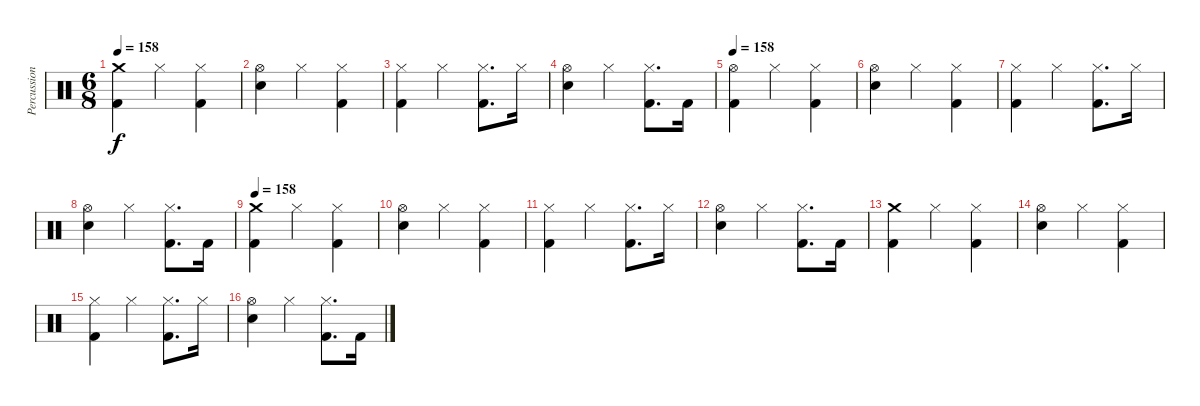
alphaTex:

\track ("Percussion" "Percussion") {instrument percussion}
\staff {score}
\articulation defaults
\ts (6 8)
\section ("" "")
\tempo 158
\clef neutral
\ks c
("Crash medium (hit)" "Kick (hit) 2").4{dy f} "Hi-Hat (closed)".4 ("Hi-Hat (closed)" "Kick (hit) 2").4 |
("Hi-Hat (open)" "Snare (hit) 2").4 "Hi-Hat (closed)".4 ("Hi-Hat (closed)" "Kick (hit) 2").4 |
("Hi-Hat (closed)" "Kick (hit) 2").4 "Hi-Hat (closed)".4 ("Hi-Hat (closed)" "Kick (hit) 2").8{d} "Hi-Hat (closed)".16 |
("Hi-Hat (open)" "Snare (hit) 2").4 "Hi-Hat (closed)".4 ("Hi-Hat (closed)" "Kick (hit) 2").8{d} "Kick (hit) 2".16 |
\tempo 158
("Hi-Hat (open)" "Kick (hit) 2").4 "Hi-Hat (closed)".4 ("Hi-Hat (closed)" "Kick (hit) 2").4 |
("Hi-Hat (open)" "Snare (hit) 2").4 "Hi-Hat (closed)".4 ("Hi-Hat (closed)" "Kick (hit) 2").4 |
("Hi-Hat (closed)" "Kick (hit) 2").4 "Hi-Hat (closed)".4 ("Hi-Hat (closed)" "Kick (hit) 2").8{d} "Hi-Hat (closed)".16 |
("Hi-Hat (open)" "Snare (hit) 2").4 "Hi-Hat (closed)".4 ("Hi-Hat (closed)" "Kick (hit) 2").8{d} "Kick (hit) 2".16 |
\tempo 158
("Crash medium (hit)" "Kick (hit) 2").4 "Hi-Hat (closed)".4 ("Hi-Hat (closed)" "Kick (hit) 2").4 |
("Hi-Hat (open)" "Snare (hit) 2").4 "Hi-Hat (closed)".4 ("Hi-Hat (closed)" "Kick (hit) 2").4 |
("Hi-Hat (closed)" "Kick (hit) 2").4 "Hi-Hat (closed)".4 ("Hi-Hat (closed)" "Kick (hit) 2").8{d} "Hi-Hat (closed)".16 |
("Hi-Hat (open)" "Snare (hit) 2").4 "Hi-Hat (closed)".4 ("Hi-Hat (closed)" "Kick (hit) 2").8{d} "Kick (hit) 2".16 |
("Crash medium (hit)" "Kick (hit) 2").4 "Hi-Hat (closed)".4 ("Hi-Hat (closed)" "Kick (hit) 2").4 |
("Hi-Hat (open)" "Snare (hit) 2").4 "Hi-Hat (closed)".4 ("Hi-Hat (closed)" "Kick (hit) 2").4 |
("Hi-Hat (closed)" "Kick (hit) 2").4 "Hi-Hat (closed)".4 ("Hi-Hat (closed)" "Kick (hit) 2").8{d} "Hi-Hat (closed)".16 |
("Hi-Hat (open)" "Snare (hit) 2").4 "Hi-Hat (closed)".4 ("Hi-Hat (closed)" "Kick (hit) 2").8{d} "Kick (hit) 2".16
